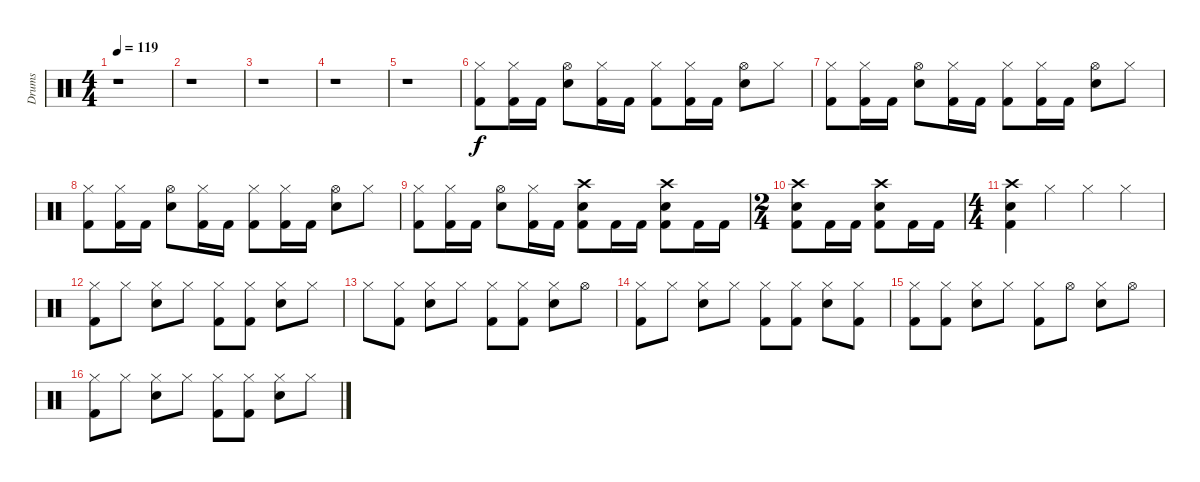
\track ("Drums" "Drums") {instrument percussion}
\staff {score}
\articulation defaults
\ts (4 4)
\tempo 119
\clef neutral
\ks c
r.1{dy f} |
r.1 |
r.1 |
r.1 |
r.1 |
("Hi-Hat (closed)" "Kick (hit) 2").8 ("Hi-Hat (closed)" "Kick (hit) 2").16 "Kick (hit) 2".16 ("Hi-Hat (open)" "Snare (hit) 2").8 ("Hi-Hat (closed)" "Kick (hit) 2").16 "Kick (hit) 2".16 ("Hi-Hat (closed)" "Kick (hit) 2").8 ("Hi-Hat (closed)" "Kick (hit) 2").16 "Kick (hit) 2".16 ("Hi-Hat (open)" "Snare (hit) 2").8 "Hi-Hat (closed)".8 |
("Hi-Hat (closed)" "Kick (hit) 2").8 ("Hi-Hat (closed)" "Kick (hit) 2").16 "Kick (hit) 2".16 ("Hi-Hat (open)" "Snare (hit) 2").8 ("Hi-Hat (closed)" "Kick (hit) 2").16 "Kick (hit) 2".16 ("Hi-Hat (closed)" "Kick (hit) 2").8 ("Hi-Hat (closed)" "Kick (hit) 2").16 "Kick (hit) 2".16 ("Hi-Hat (open)" "Snare (hit) 2").8 "Hi-Hat (closed)".8 |
("Hi-Hat (closed)" "Kick (hit) 2").8 ("Hi-Hat (closed)" "Kick (hit) 2").16 "Kick (hit) 2".16 ("Hi-Hat (open)" "Snare (hit) 2").8 ("Hi-Hat (closed)" "Kick (hit) 2").16 "Kick (hit) 2".16 ("Hi-Hat (closed)" "Kick (hit) 2").8 ("Hi-Hat (closed)" "Kick (hit) 2").16 "Kick (hit) 2".16 ("Hi-Hat (open)" "Snare (hit) 2").8 "Hi-Hat (closed)".8 |
("Hi-Hat (closed)" "Kick (hit) 2").8 ("Hi-Hat (closed)" "Kick (hit) 2").16 "Kick (hit) 2".16 ("Hi-Hat (open)" "Snare (hit) 2").8 ("Hi-Hat (closed)" "Kick (hit) 2").16 "Kick (hit) 2".16 ("Crash high (hit)" "Kick (hit) 2" "Snare (hit) 2").8 "Kick (hit) 2".16 "Kick (hit) 2".16 ("Crash high (hit)" "Kick (hit) 2" "Snare (hit) 2").8 "Kick (hit) 2".16 "Kick (hit) 2".16 |
\ts (2 4)
("Crash high (hit)" "Kick (hit) 2" "Snare (hit) 2").8 "Kick (hit) 2".16 "Kick (hit) 2".16 ("Crash high (hit)" "Kick (hit) 2" "Snare (hit) 2").8 "Kick (hit) 2".16 "Kick (hit) 2".16 |
\ts (4 4)
("Crash high (hit)" "Kick (hit) 2" "Snare (hit) 2").4 "Hi-Hat (closed)".4 "Hi-Hat (closed)".4 "Hi-Hat (closed)".4 |
("Hi-Hat (closed)" "Kick (hit) 2").8 "Hi-Hat (closed)".8 ("Hi-Hat (closed)" "Snare (hit) 2").8 "Hi-Hat (closed)".8 ("Hi-Hat (closed)" "Kick (hit) 2").8 ("Hi-Hat (closed)" "Kick (hit) 2").8 ("Hi-Hat (closed)" "Snare (hit) 2").8 "Hi-Hat (closed)".8 |
"Hi-Hat (closed)".8 ("Hi-Hat (closed)" "Kick (hit) 2").8 ("Hi-Hat (closed)" "Snare (hit) 2").8 "Hi-Hat (closed)".8 ("Hi-Hat (closed)" "Kick (hit) 2").8 ("Hi-Hat (closed)" "Kick (hit) 2").8 ("Hi-Hat (closed)" "Snare (hit) 2").8 "Hi-Hat (open)".8 |
("Hi-Hat (closed)" "Kick (hit) 2").8 "Hi-Hat (closed)".8 ("Hi-Hat (closed)" "Snare (hit) 2").8 "Hi-Hat (closed)".8 ("Hi-Hat (closed)" "Kick (hit) 2").8 ("Hi-Hat (closed)" "Kick (hit) 2").8 ("Hi-Hat (closed)" "Snare (hit) 2").8 ("Hi-Hat (closed)" "Kick (hit) 2").8 |
("Hi-Hat (closed)" "Kick (hit) 2").8 ("Hi-Hat (closed)" "Kick (hit) 2").8 ("Hi-Hat (closed)" "Snare (hit) 2").8 "Hi-Hat (closed)".8 ("Hi-Hat (closed)" "Kick (hit) 2").8 "Hi-Hat (open)".8 ("Hi-Hat (closed)" "Snare (hit) 2").8 "Hi-Hat (open)".8 |
("Hi-Hat (closed)" "Kick (hit) 2").8 "Hi-Hat (closed)".8 ("Hi-Hat (closed)" "Snare (hit) 2").8 "Hi-Hat (closed)".8 ("Hi-Hat (closed)" "Kick (hit) 2").8 ("Hi-Hat (closed)" "Kick (hit) 2").8 ("Hi-Hat (closed)" "Snare (hit) 2").8 "Hi-Hat (closed)".8
